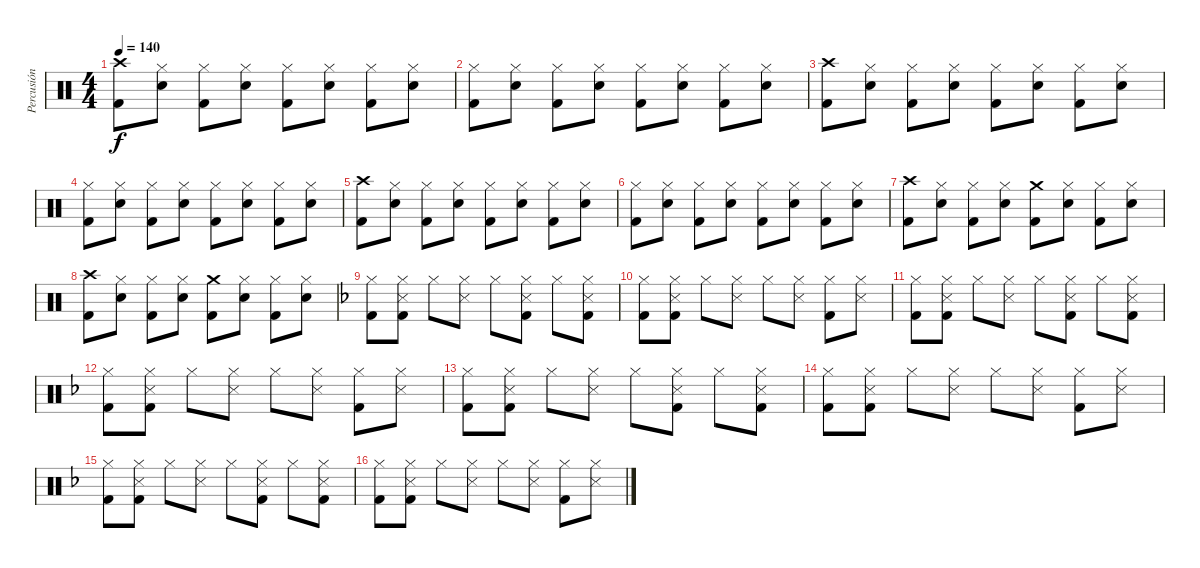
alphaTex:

\track ("Percusión" "Percusión") {instrument percussion}
\staff {score}
\articulation defaults
\ts (4 4)
\tempo 140
\clef neutral
\ks c
("Crash high (hit)" "Kick (hit) 2").8{dy f} ("Hi-Hat (closed)" "Snare (hit) 2").8 ("Hi-Hat (closed)" "Kick (hit) 2").8 ("Hi-Hat (closed)" "Snare (hit) 2").8 ("Hi-Hat (closed)" "Kick (hit) 2").8 ("Hi-Hat (closed)" "Snare (hit) 2").8 ("Hi-Hat (closed)" "Kick (hit) 2").8 ("Hi-Hat (closed)" "Snare (hit) 2").8 |
("Hi-Hat (closed)" "Kick (hit) 2").8 ("Hi-Hat (closed)" "Snare (hit) 2").8 ("Hi-Hat (closed)" "Kick (hit) 2").8 ("Hi-Hat (closed)" "Snare (hit) 2").8 ("Hi-Hat (closed)" "Kick (hit) 2").8 ("Hi-Hat (closed)" "Snare (hit) 2").8 ("Hi-Hat (closed)" "Kick (hit) 2").8 ("Hi-Hat (closed)" "Snare (hit) 2").8 |
("Crash high (hit)" "Kick (hit) 2").8 ("Hi-Hat (closed)" "Snare (hit) 2").8 ("Hi-Hat (closed)" "Kick (hit) 2").8 ("Hi-Hat (closed)" "Snare (hit) 2").8 ("Hi-Hat (closed)" "Kick (hit) 2").8 ("Hi-Hat (closed)" "Snare (hit) 2").8 ("Hi-Hat (closed)" "Kick (hit) 2").8 ("Hi-Hat (closed)" "Snare (hit) 2").8 |
("Hi-Hat (closed)" "Kick (hit) 2").8 ("Hi-Hat (closed)" "Snare (hit) 2").8 ("Hi-Hat (closed)" "Kick (hit) 2").8 ("Hi-Hat (closed)" "Snare (hit) 2").8 ("Hi-Hat (closed)" "Kick (hit) 2").8 ("Hi-Hat (closed)" "Snare (hit) 2").8 ("Hi-Hat (closed)" "Kick (hit) 2").8 ("Hi-Hat (closed)" "Snare (hit) 2").8 |
("Crash high (hit)" "Kick (hit) 2").8 ("Hi-Hat (closed)" "Snare (hit) 2").8 ("Hi-Hat (closed)" "Kick (hit) 2").8 ("Hi-Hat (closed)" "Snare (hit) 2").8 ("Hi-Hat (closed)" "Kick (hit) 2").8 ("Hi-Hat (closed)" "Snare (hit) 2").8 ("Hi-Hat (closed)" "Kick (hit) 2").8 ("Hi-Hat (closed)" "Snare (hit) 2").8 |
("Hi-Hat (closed)" "Kick (hit) 2").8 ("Hi-Hat (closed)" "Snare (hit) 2").8 ("Hi-Hat (closed)" "Kick (hit) 2").8 ("Hi-Hat (closed)" "Snare (hit) 2").8 ("Hi-Hat (closed)" "Kick (hit) 2").8 ("Hi-Hat (closed)" "Snare (hit) 2").8 ("Hi-Hat (closed)" "Kick (hit) 2").8 ("Hi-Hat (closed)" "Snare (hit) 2").8 |
("Crash high (hit)" "Kick (hit) 2").8 ("Hi-Hat (closed)" "Snare (hit) 2").8 ("Hi-Hat (closed)" "Kick (hit) 2").8 ("Hi-Hat (closed)" "Snare (hit) 2").8 ("Crash medium (hit)" "Kick (hit) 2").8 ("Hi-Hat (closed)" "Snare (hit) 2").8 ("Hi-Hat (closed)" "Kick (hit) 2").8 ("Hi-Hat (closed)" "Snare (hit) 2").8 |
("Crash high (hit)" "Kick (hit) 2").8 ("Hi-Hat (closed)" "Snare (hit) 2").8 ("Hi-Hat (closed)" "Kick (hit) 2").8 ("Hi-Hat (closed)" "Snare (hit) 2").8 ("Crash medium (hit)" "Kick (hit) 2").8 ("Hi-Hat (closed)" "Snare (hit) 2").8 ("Hi-Hat (closed)" "Kick (hit) 2").8 ("Hi-Hat (closed)" "Snare (hit) 2").8 |
\ks f
("Hi-Hat (closed)" "Kick (hit) 2").8 ("Hi-Hat (closed)" "Snare (side stick) 3" "Kick (hit) 2").8 "Hi-Hat (closed)".8 ("Hi-Hat (closed)" "Snare (side stick) 3").8 "Hi-Hat (closed)".8 ("Hi-Hat (closed)" "Snare (side stick) 3" "Kick (hit) 2").8 "Hi-Hat (closed)".8 ("Hi-Hat (closed)" "Snare (side stick) 3" "Kick (hit) 2").8 |
("Hi-Hat (closed)" "Kick (hit) 2").8 ("Hi-Hat (closed)" "Snare (side stick) 3" "Kick (hit) 2").8 "Hi-Hat (closed)".8 ("Hi-Hat (closed)" "Snare (side stick) 3").8 "Hi-Hat (closed)".8 ("Hi-Hat (closed)" "Snare (side stick) 3").8 ("Hi-Hat (closed)" "Kick (hit) 2").8 ("Hi-Hat (closed)" "Snare (side stick) 3").8 |
("Hi-Hat (closed)" "Kick (hit) 2").8 ("Hi-Hat (closed)" "Snare (side stick) 3" "Kick (hit) 2").8 "Hi-Hat (closed)".8 ("Hi-Hat (closed)" "Snare (side stick) 3").8 "Hi-Hat (closed)".8 ("Hi-Hat (closed)" "Snare (side stick) 3" "Kick (hit) 2").8 "Hi-Hat (closed)".8 ("Hi-Hat (closed)" "Snare (side stick) 3" "Kick (hit) 2").8 |
("Hi-Hat (closed)" "Kick (hit) 2").8 ("Hi-Hat (closed)" "Snare (side stick) 3" "Kick (hit) 2").8 "Hi-Hat (closed)".8 ("Hi-Hat (closed)" "Snare (side stick) 3").8 "Hi-Hat (closed)".8 ("Hi-Hat (closed)" "Snare (side stick) 3").8 ("Hi-Hat (closed)" "Kick (hit) 2").8 ("Hi-Hat (closed)" "Snare (side stick) 3").8 |
("Hi-Hat (closed)" "Kick (hit) 2").8 ("Hi-Hat (closed)" "Snare (side stick) 3" "Kick (hit) 2").8 "Hi-Hat (closed)".8 ("Hi-Hat (closed)" "Snare (side stick) 3").8 "Hi-Hat (closed)".8 ("Hi-Hat (closed)" "Snare (side stick) 3" "Kick (hit) 2").8 "Hi-Hat (closed)".8 ("Hi-Hat (closed)" "Snare (side stick) 3" "Kick (hit) 2").8 |
("Hi-Hat (closed)" "Kick (hit) 2").8 ("Hi-Hat (closed)" "Snare (side stick) 3" "Kick (hit) 2").8 "Hi-Hat (closed)".8 ("Hi-Hat (closed)" "Snare (side stick) 3").8 "Hi-Hat (closed)".8 ("Hi-Hat (closed)" "Snare (side stick) 3").8 ("Hi-Hat (closed)" "Kick (hit) 2").8 ("Hi-Hat (closed)" "Snare (side stick) 3").8 |
("Hi-Hat (closed)" "Kick (hit) 2").8 ("Hi-Hat (closed)" "Snare (side stick) 3" "Kick (hit) 2").8 "Hi-Hat (closed)".8 ("Hi-Hat (closed)" "Snare (side stick) 3").8 "Hi-Hat (closed)".8 ("Hi-Hat (closed)" "Snare (side stick) 3" "Kick (hit) 2").8 "Hi-Hat (closed)".8 ("Hi-Hat (closed)" "Snare (side stick) 3" "Kick (hit) 2").8 |
("Hi-Hat (closed)" "Kick (hit) 2").8 ("Hi-Hat (closed)" "Snare (side stick) 3" "Kick (hit) 2").8 "Hi-Hat (closed)".8 ("Hi-Hat (closed)" "Snare (side stick) 3").8 "Hi-Hat (closed)".8 ("Hi-Hat (closed)" "Snare (side stick) 3").8 ("Hi-Hat (closed)" "Kick (hit) 2").8 ("Hi-Hat (closed)" "Snare (side stick) 3").8
